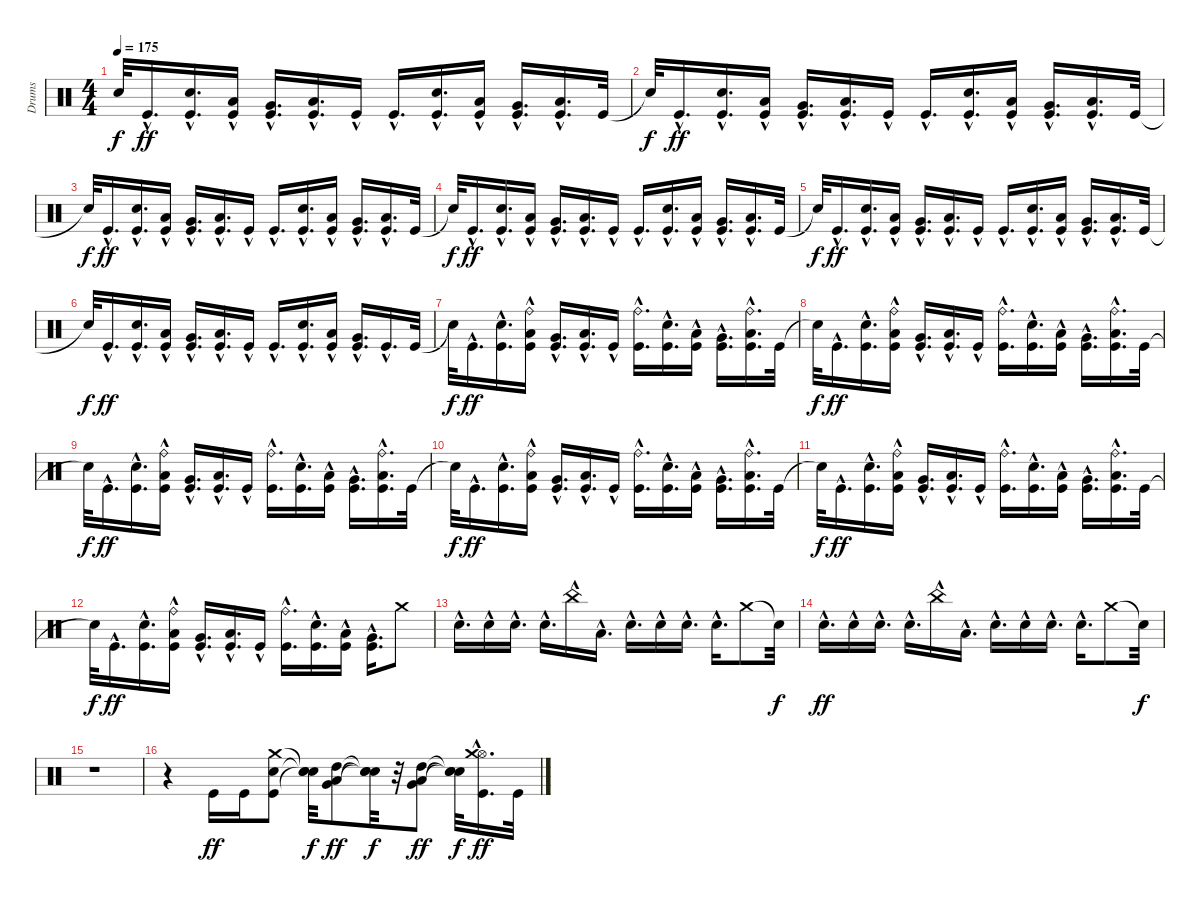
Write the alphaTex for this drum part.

\track ("Drums" "Drums") {instrument percussion}
\staff {score}
\articulation defaults
\ts (4 4)
\tempo 175
\clef neutral
\ks c "Snare (hit)"{t}.32{dy f} "Kick (hit)"{hac}.16{d dy ff}
("Kick (hit)"{hac} "Electric Snare (hit)"{hac}).16{d} ("Kick (hit)"{hac} "Low Tom (hit)"{hac}).16 ("Kick (hit)"{hac} "Very Low Tom (hit)"{hac}).16{d} ("Kick (hit)"{hac} "Low Floor Tom (hit)"{hac}).16{d} "Kick (hit)"{hac}.16 "Kick (hit)"{hac}.16{d} ("Kick (hit)"{hac} "Electric Snare (hit)"{hac}).16{d} ("Kick (hit)"{hac} "Low Tom (hit)"{hac}).16 ("Kick (hit)"{hac} "Very Low Tom (hit)"{hac}).16{d} ("Kick (hit)"{hac} "Low Floor Tom (hit)"{hac}).16{d} "Kick (hit)".32 |
"Snare (hit)"{t}.32{dy f} "Kick (hit)"{hac}.16{d dy ff} ("Kick (hit)"{hac} "Electric Snare (hit)"{hac}).16{d} ("Kick (hit)"{hac} "Low Tom (hit)"{hac}).16 ("Kick (hit)"{hac} "Very Low Tom (hit)"{hac}).16{d} ("Kick (hit)"{hac} "Low Floor Tom (hit)"{hac}).16{d} "Kick (hit)"{hac}.16 "Kick (hit)"{hac}.16{d} ("Kick (hit)"{hac} "Electric Snare (hit)"{hac}).16{d} ("Kick (hit)"{hac} "Low Tom (hit)"{hac}).16 ("Kick (hit)"{hac} "Very Low Tom (hit)"{hac}).16{d} ("Kick (hit)"{hac} "Low Floor Tom (hit)"{hac}).16{d} "Kick (hit)".32 |
"Snare (hit)"{t}.32{dy f} "Kick (hit)"{hac}.16{d dy ff} ("Kick (hit)"{hac} "Electric Snare (hit)"{hac}).16{d} ("Kick (hit)"{hac} "Low Tom (hit)"{hac}).16 ("Kick (hit)"{hac} "Very Low Tom (hit)"{hac}).16{d} ("Kick (hit)"{hac} "Low Floor Tom (hit)"{hac}).16{d} "Kick (hit)"{hac}.16 "Kick (hit)"{hac}.16{d} ("Kick (hit)"{hac} "Electric Snare (hit)"{hac}).16{d} ("Kick (hit)"{hac} "Low Tom (hit)"{hac}).16 ("Kick (hit)"{hac} "Very Low Tom (hit)"{hac}).16{d} ("Kick (hit)"{hac} "Low Floor Tom (hit)"{hac}).16{d} "Kick (hit)".32 |
"Snare (hit)"{t}.32{dy f} "Kick (hit)"{hac}.16{d dy ff} ("Kick (hit)"{hac} "Electric Snare (hit)"{hac}).16{d} ("Kick (hit)"{hac} "Low Tom (hit)"{hac}).16 ("Kick (hit)"{hac} "Very Low Tom (hit)"{hac}).16{d} ("Kick (hit)"{hac} "Low Floor Tom (hit)"{hac}).16{d} "Kick (hit)"{hac}.16 "Kick (hit)"{hac}.16{d} ("Kick (hit)"{hac} "Electric Snare (hit)"{hac}).16{d} ("Kick (hit)"{hac} "Low Tom (hit)"{hac}).16 ("Kick (hit)"{hac} "Very Low Tom (hit)"{hac}).16{d} ("Kick (hit)"{hac} "Low Floor Tom (hit)"{hac}).16{d} "Kick (hit)".32 |
"Snare (hit)"{t}.32{dy f} "Kick (hit)"{hac}.16{d dy ff} ("Kick (hit)"{hac} "Electric Snare (hit)"{hac}).16{d} ("Kick (hit)"{hac} "Low Tom (hit)"{hac}).16 ("Kick (hit)"{hac} "Very Low Tom (hit)"{hac}).16{d} ("Kick (hit)"{hac} "Low Floor Tom (hit)"{hac}).16{d} "Kick (hit)"{hac}.16 "Kick (hit)"{hac}.16{d} ("Kick (hit)"{hac} "Electric Snare (hit)"{hac}).16{d} ("Kick (hit)"{hac} "Low Tom (hit)"{hac}).16 ("Kick (hit)"{hac} "Very Low Tom (hit)"{hac}).16{d} ("Kick (hit)"{hac} "Low Floor Tom (hit)"{hac}).16{d} "Kick (hit)".32 |
"Snare (hit)"{t}.32{dy f} "Kick (hit)"{hac}.16{d dy ff} ("Kick (hit)"{hac} "Electric Snare (hit)"{hac}).16{d} ("Kick (hit)"{hac} "Low Tom (hit)"{hac}).16 ("Kick (hit)"{hac} "Very Low Tom (hit)"{hac}).16{d} ("Kick (hit)"{hac} "Low Floor Tom (hit)"{hac}).16{d} "Kick (hit)"{hac}.16 "Kick (hit)"{hac}.16{d} ("Kick (hit)"{hac} "Electric Snare (hit)"{hac}).16{d} ("Kick (hit)"{hac} "Low Tom (hit)"{hac}).16 ("Kick (hit)"{hac} "Very Low Tom (hit)"{hac}).16{d} "Kick (hit)"{hac}.16{d} "Kick (hit)".32 |
"Snare (hit)"{t}.32{dy f} "Kick (hit)"{hac}.16{d dy ff} ("Kick (hit)"{hac} "Electric Snare (hit)"{hac}).16{d} ("Kick (hit)"{hac} "Low Tom (hit)"{hac} "Ride (bell)"{hac}).16 ("Kick (hit)"{hac} "Very Low Tom (hit)"{hac}).16{d} ("Kick (hit)"{hac} "Low Floor Tom (hit)"{hac}).16{d} "Kick (hit)"{hac}.16 ("Kick (hit)"{hac} "Ride (bell)"{hac}).16{d} ("Kick (hit)"{hac} "Electric Snare (hit)"{hac}).16{d} ("Kick (hit)"{hac} "Low Tom (hit)"{hac}).16 ("Kick (hit)"{hac} "Very Low Tom (hit)"{hac}).16{d} ("Kick (hit)"{hac} "Low Floor Tom (hit)"{hac} "Ride (bell)"{hac}).16{d} "Kick (hit)".32 |
"Snare (hit)"{t}.32{dy f} "Kick (hit)"{hac}.16{d dy ff} ("Kick (hit)"{hac} "Electric Snare (hit)"{hac}).16{d} ("Kick (hit)"{hac} "Low Tom (hit)"{hac} "Ride (bell)"{hac}).16 ("Kick (hit)"{hac} "Very Low Tom (hit)"{hac}).16{d} ("Kick (hit)"{hac} "Low Floor Tom (hit)"{hac}).16{d} "Kick (hit)"{hac}.16 ("Kick (hit)"{hac} "Ride (bell)"{hac}).16{d} ("Kick (hit)"{hac} "Electric Snare (hit)"{hac}).16{d} ("Kick (hit)"{hac} "Low Tom (hit)"{hac}).16 ("Kick (hit)"{hac} "Very Low Tom (hit)"{hac}).16{d} ("Kick (hit)"{hac} "Low Floor Tom (hit)"{hac} "Ride (bell)"{hac}).16{d} "Kick (hit)".32 |
"Snare (hit)"{t}.32{dy f} "Kick (hit)"{hac}.16{d dy ff} ("Kick (hit)"{hac} "Electric Snare (hit)"{hac}).16{d} ("Kick (hit)"{hac} "Low Tom (hit)"{hac} "Ride (bell)"{hac}).16 ("Kick (hit)"{hac} "Very Low Tom (hit)"{hac}).16{d} ("Kick (hit)"{hac} "Low Floor Tom (hit)"{hac}).16{d} "Kick (hit)"{hac}.16 ("Kick (hit)"{hac} "Ride (bell)"{hac}).16{d} ("Kick (hit)"{hac} "Electric Snare (hit)"{hac}).16{d} ("Kick (hit)"{hac} "Low Tom (hit)"{hac}).16 ("Kick (hit)"{hac} "Very Low Tom (hit)"{hac}).16{d} ("Kick (hit)"{hac} "Low Floor Tom (hit)"{hac} "Ride (bell)"{hac}).16{d} "Kick (hit)".32 |
"Snare (hit)"{t}.32{dy f} "Kick (hit)"{hac}.16{d dy ff} ("Kick (hit)"{hac} "Electric Snare (hit)"{hac}).16{d} ("Kick (hit)"{hac} "Low Tom (hit)"{hac} "Ride (bell)"{hac}).16 ("Kick (hit)"{hac} "Very Low Tom (hit)"{hac}).16{d} ("Kick (hit)"{hac} "Low Floor Tom (hit)"{hac}).16{d} "Kick (hit)"{hac}.16 ("Kick (hit)"{hac} "Ride (bell)"{hac}).16{d} ("Kick (hit)"{hac} "Electric Snare (hit)"{hac}).16{d} ("Kick (hit)"{hac} "Low Tom (hit)"{hac}).16 ("Kick (hit)"{hac} "Very Low Tom (hit)"{hac}).16{d} ("Kick (hit)"{hac} "Low Floor Tom (hit)"{hac} "Ride (bell)"{hac}).16{d} "Kick (hit)".32 |
"Snare (hit)"{t}.32{dy f} "Kick (hit)"{hac}.16{d dy ff} ("Kick (hit)"{hac} "Electric Snare (hit)"{hac}).16{d} ("Kick (hit)"{hac} "Low Tom (hit)"{hac} "Ride (bell)"{hac}).16 ("Kick (hit)"{hac} "Very Low Tom (hit)"{hac}).16{d} ("Kick (hit)"{hac} "Low Floor Tom (hit)"{hac}).16{d} "Kick (hit)"{hac}.16 ("Kick (hit)"{hac} "Ride (bell)"{hac}).16{d} ("Kick (hit)"{hac} "Electric Snare (hit)"{hac}).16{d} ("Kick (hit)"{hac} "Low Tom (hit)"{hac}).16 ("Kick (hit)"{hac} "Very Low Tom (hit)"{hac}).16{d} ("Kick (hit)"{hac} "Low Floor Tom (hit)"{hac} "Ride (bell)"{hac}).16{d} "Kick (hit)".32 |
"Snare (hit)"{t}.32{dy f} "Kick (hit)"{hac}.16{d dy ff} ("Kick (hit)"{hac} "Electric Snare (hit)"{hac}).16{d} ("Kick (hit)"{hac} "Low Tom (hit)"{hac} "Ride (bell)"{hac}).16 ("Kick (hit)"{hac} "Very Low Tom (hit)"{hac}).16{d} ("Kick (hit)"{hac} "Low Floor Tom (hit)"{hac}).16{d} "Kick (hit)"{hac}.16 ("Kick (hit)"{hac} "Ride (bell)"{hac}).16{d} ("Kick (hit)"{hac} "Electric Snare (hit)"{hac}).16{d} ("Kick (hit)"{hac} "Low Tom (hit)"{hac}).16 ("Kick (hit)"{hac} "Very Low Tom (hit)"{hac}).16{d} "Crash medium (hit)".8 |
"Electric Snare (hit)"{hac}.16{d} "Electric Snare (hit)"{hac}.16 "Electric Snare (hit)"{hac}.16{d} "Electric Snare (hit)"{hac}.16{d} "China (hit)"{hac}.16 "Low Floor Tom (hit)"{hac}.16{d} "Electric Snare (hit)"{hac}.16{d} "Electric Snare (hit)"{hac}.16 "Electric Snare (hit)"{hac}.16{d} "Electric Snare (hit)"{hac}.16{d} "Crash medium (hit)".8 "Snare (hit)"{t}.32{dy f} |
"Electric Snare (hit)"{hac}.16{d dy ff} "Electric Snare (hit)"{hac}.16 "Electric Snare (hit)"{hac}.16{d} "Electric Snare (hit)"{hac}.16{d} "China (hit)"{hac}.16 "Low Floor Tom (hit)"{hac}.16{d} "Electric Snare (hit)"{hac}.16{d} "Electric Snare (hit)"{hac}.16 "Electric Snare (hit)"{hac}.16{d} "Electric Snare (hit)"{hac}.16{d} "Crash medium (hit)".8 "Snare (hit)"{t}.32{dy f} |
r.1 |
r.4 "Kick (hit)".16{dy ff} "Kick (hit)".16 ("Kick (hit)" "Electric Snare (hit)" "Crash medium (hit)").8 ("Snare (hit)"{t} "Snare (hit)"{t} "Snare (hit)"{t}).32{dy f} ("Low Floor Tom (hit)" "Very Low Tom (hit)" "High Tom (hit)").8{dy ff} ("Snare (hit)"{t} "Snare (hit)"{t} "Snare (hit)"{t}).32{dy f} r.32 ("Low Floor Tom (hit)" "Very Low Tom (hit)" "High Tom (hit)").8{dy ff} ("Snare (hit)"{t} "Snare (hit)"{t} "Snare (hit)"{t}).32{dy f} ("Kick (hit)"{hac} "Hi-Hat (open)"{hac} "Crash medium (hit)"{hac}).16{d dy ff} "Kick (hit)".32
